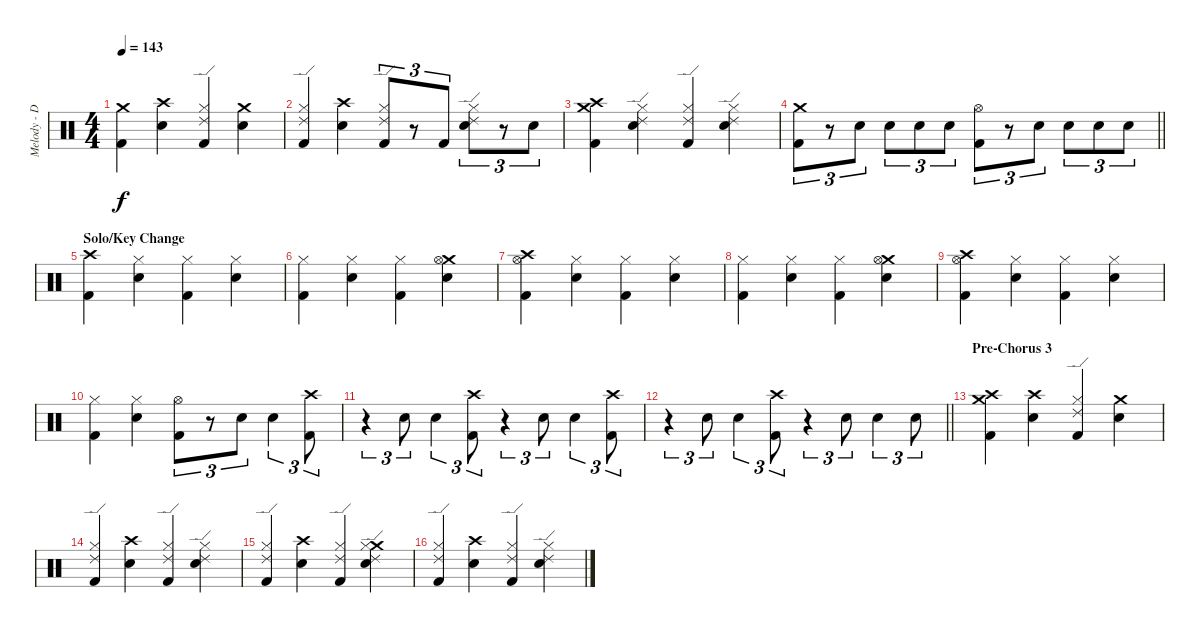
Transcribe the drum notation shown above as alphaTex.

\track ("Melody - Drums" "Melody - D") {instrument percussion}
\staff {score}
\articulation defaults
\ts (4 4)
\tempo 143
\clef neutral
\ks c
("Crash medium (hit)" "Kick (hit) 2").4{dy f} ("Crash high (hit)" "Electric Snare (hit)").4 ("Hi-Hat (closed)" "Ride (edge) 2" "Kick (hit) 2").4 ("Crash medium (hit)" "Electric Snare (hit)").4 |
("Hi-Hat (closed)" "Ride (edge) 2" "Kick (hit) 2").4 ("Crash high (hit)" "Electric Snare (hit)").4 ("Hi-Hat (closed)" "Ride (edge) 2" "Kick (hit) 2").8{tu (3 2)} r.8{tu (3 2)} "Kick (hit) 2".8{tu (3 2)} ("Hi-Hat (closed)" "Ride (edge) 2" "Electric Snare (hit)").8{tu (3 2)} r.8{tu (3 2)} "Electric Snare (hit)".8{tu (3 2)} |
("Crash medium (hit)" "Crash high (hit)" "Kick (hit) 2").4 ("Hi-Hat (closed)" "Ride (edge) 2" "Electric Snare (hit)").4 ("Hi-Hat (closed)" "Ride (edge) 2" "Kick (hit) 2").4 ("Hi-Hat (closed)" "Ride (edge) 2" "Electric Snare (hit)").4 |
\barLineRight lightlight
("Crash medium (hit)" "Kick (hit) 2").8{tu (3 2)} r.8{tu (3 2)} "Electric Snare (hit)".8{tu (3 2)} "Electric Snare (hit)".8{tu (3 2)} "Electric Snare (hit)".8{tu (3 2)} "Electric Snare (hit)".8{tu (3 2)} ("Hi-Hat (open)" "Kick (hit) 2").8{tu (3 2)} r.8{tu (3 2)} "Electric Snare (hit)".8{tu (3 2)} "Electric Snare (hit)".8{tu (3 2)} "Electric Snare (hit)".8{tu (3 2)} "Electric Snare (hit)".8{tu (3 2)} |
\section ("" "Solo/Key Change")
("Crash high (hit)" "Kick (hit) 2").4 ("Hi-Hat (closed)" "Electric Snare (hit)").4 ("Hi-Hat (closed)" "Kick (hit) 2").4 ("Hi-Hat (closed)" "Electric Snare (hit)").4 |
("Hi-Hat (closed)" "Kick (hit) 2").4 ("Hi-Hat (closed)" "Electric Snare (hit)").4 ("Hi-Hat (closed)" "Kick (hit) 2").4 ("Crash medium (hit)" "Hi-Hat (open)" "Electric Snare (hit)").4 |
("Crash high (hit)" "Hi-Hat (open)" "Kick (hit) 2").4 ("Hi-Hat (closed)" "Electric Snare (hit)").4 ("Hi-Hat (closed)" "Kick (hit) 2").4 ("Hi-Hat (closed)" "Electric Snare (hit)").4 |
("Hi-Hat (closed)" "Kick (hit) 2").4 ("Hi-Hat (closed)" "Electric Snare (hit)").4 ("Hi-Hat (closed)" "Kick (hit) 2").4 ("Crash medium (hit)" "Hi-Hat (open)" "Electric Snare (hit)").4 |
("Crash high (hit)" "Hi-Hat (open)" "Kick (hit) 2").4 ("Hi-Hat (closed)" "Electric Snare (hit)").4 ("Hi-Hat (closed)" "Kick (hit) 2").4 ("Hi-Hat (closed)" "Electric Snare (hit)").4 |
("Hi-Hat (closed)" "Kick (hit) 2").4 ("Hi-Hat (closed)" "Electric Snare (hit)").4 ("Hi-Hat (open)" "Kick (hit) 2").8{tu (3 2)} r.8{tu (3 2)} "Electric Snare (hit)".8{tu (3 2)} "Electric Snare (hit)".4{tu (3 2)} ("Crash high (hit)" "Kick (hit) 2").8{tu (3 2)} |
r.4{tu (3 2)} "Electric Snare (hit)".8{tu (3 2)} "Electric Snare (hit)".4{tu (3 2)} ("Crash high (hit)" "Kick (hit) 2").8{tu (3 2)} r.4{tu (3 2)} "Electric Snare (hit)".8{tu (3 2)} "Electric Snare (hit)".4{tu (3 2)} ("Crash high (hit)" "Kick (hit) 2").8{tu (3 2)} |
\barLineRight lightlight
r.4{tu (3 2)} "Electric Snare (hit)".8{tu (3 2)} "Electric Snare (hit)".4{tu (3 2)} ("Crash high (hit)" "Kick (hit) 2").8{tu (3 2)} r.4{tu (3 2)} "Electric Snare (hit)".8{tu (3 2)} "Electric Snare (hit)".4{tu (3 2)} "Electric Snare (hit)".8{tu (3 2)} |
\section ("" "Pre-Chorus 3")
("Crash medium (hit)" "Crash high (hit)" "Kick (hit) 2").4 ("Crash high (hit)" "Electric Snare (hit)").4 ("Hi-Hat (closed)" "Ride (edge) 2" "Kick (hit) 2").4 ("Crash medium (hit)" "Electric Snare (hit)").4 |
("Hi-Hat (closed)" "Ride (edge) 2" "Kick (hit) 2").4 ("Crash high (hit)" "Electric Snare (hit)").4 ("Hi-Hat (closed)" "Ride (edge) 2" "Kick (hit) 2").4 ("Hi-Hat (closed)" "Ride (edge) 2" "Electric Snare (hit)").4 |
("Hi-Hat (closed)" "Ride (edge) 2" "Kick (hit) 2").4 ("Crash high (hit)" "Electric Snare (hit)").4 ("Hi-Hat (closed)" "Ride (edge) 2" "Kick (hit) 2").4 ("Crash medium (hit)" "Hi-Hat (closed)" "Ride (edge) 2" "Electric Snare (hit)").4 |
("Hi-Hat (closed)" "Ride (edge) 2" "Kick (hit) 2").4 ("Crash high (hit)" "Electric Snare (hit)").4 ("Hi-Hat (closed)" "Ride (edge) 2" "Kick (hit) 2").4 ("Hi-Hat (closed)" "Ride (edge) 2" "Electric Snare (hit)").4
